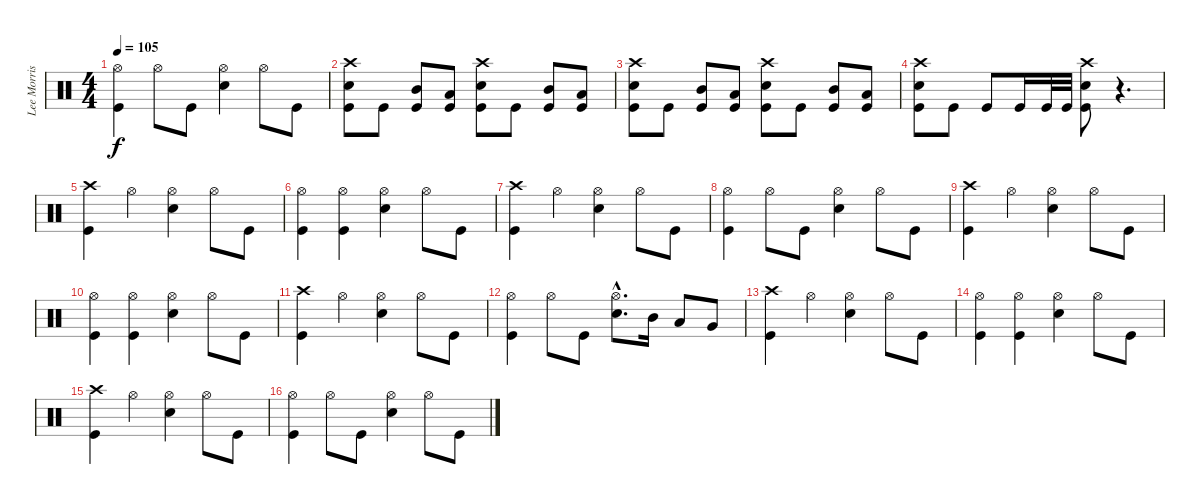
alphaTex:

\track ("Lee Morris" "Lee Morris") {instrument percussion}
\staff {score}
\articulation defaults
\ts (4 4)
\tempo 105
\clef neutral
\ks c
("Kick (hit)" "Hi-Hat (open)").4{dy f} "Hi-Hat (open)".8 "Kick (hit)".8 ("Snare (hit) 2" "Hi-Hat (open)").4 "Hi-Hat (open)".8 "Kick (hit)".8 |
("Kick (hit)" "Snare (hit) 2" "Crash high (hit)").8 "Kick (hit)".8 ("Kick (hit)" "Mid Tom (hit)").8 ("Kick (hit)" "Low Tom (hit)").8 ("Kick (hit)" "Snare (hit) 2" "Crash high (hit)").8 "Kick (hit)".8 ("Kick (hit)" "Mid Tom (hit)").8 ("Kick (hit)" "Low Tom (hit)").8 |
("Kick (hit)" "Snare (hit) 2" "Crash high (hit)").8 "Kick (hit)".8 ("Kick (hit)" "Mid Tom (hit)").8 ("Kick (hit)" "Low Tom (hit)").8 ("Kick (hit)" "Snare (hit) 2" "Crash high (hit)").8 "Kick (hit)".8 ("Kick (hit)" "Mid Tom (hit)").8 ("Kick (hit)" "Low Tom (hit)").8 |
("Kick (hit)" "Snare (hit) 2" "Crash high (hit)").8 "Kick (hit)".8 "Kick (hit)".8 "Kick (hit)".16 "Kick (hit)".32 "Kick (hit)".32 ("Kick (hit)" "Snare (hit) 2" "Crash high (hit)").8 r.4{d} |
("Kick (hit)" "Crash high (hit)").4 "Hi-Hat (open)".4 ("Snare (hit) 2" "Hi-Hat (open)").4 "Hi-Hat (open)".8 "Kick (hit)".8 |
("Kick (hit)" "Hi-Hat (open)").4 ("Kick (hit)" "Hi-Hat (open)").4 ("Snare (hit) 2" "Hi-Hat (open)").4 "Hi-Hat (open)".8 "Kick (hit)".8 |
("Kick (hit)" "Crash high (hit)").4 "Hi-Hat (open)".4 ("Snare (hit) 2" "Hi-Hat (open)").4 "Hi-Hat (open)".8 "Kick (hit)".8 |
("Kick (hit)" "Hi-Hat (open)").4 "Hi-Hat (open)".8 "Kick (hit)".8 ("Snare (hit) 2" "Hi-Hat (open)").4 "Hi-Hat (open)".8 "Kick (hit)".8 |
("Kick (hit)" "Crash high (hit)").4 "Hi-Hat (open)".4 ("Snare (hit) 2" "Hi-Hat (open)").4 "Hi-Hat (open)".8 "Kick (hit)".8 |
("Kick (hit)" "Hi-Hat (open)").4 ("Kick (hit)" "Hi-Hat (open)").4 ("Snare (hit) 2" "Hi-Hat (open)").4 "Hi-Hat (open)".8 "Kick (hit)".8 |
("Kick (hit)" "Crash high (hit)").4 "Hi-Hat (open)".4 ("Snare (hit) 2" "Hi-Hat (open)").4 "Hi-Hat (open)".8 "Kick (hit)".8 |
("Kick (hit)" "Hi-Hat (open)").4 "Hi-Hat (open)".8 "Kick (hit)".8 ("Snare (hit) 2"{hac} "Hi-Hat (open)"{hac}).8{d} "Mid Tom (hit)".16 "Low Tom (hit)".8 "Very Low Tom (hit)".8 |
("Kick (hit)" "Crash high (hit)").4 "Hi-Hat (open)".4 ("Snare (hit) 2" "Hi-Hat (open)").4 "Hi-Hat (open)".8 "Kick (hit)".8 |
("Kick (hit)" "Hi-Hat (open)").4 ("Kick (hit)" "Hi-Hat (open)").4 ("Snare (hit) 2" "Hi-Hat (open)").4 "Hi-Hat (open)".8 "Kick (hit)".8 |
("Kick (hit)" "Crash high (hit)").4 "Hi-Hat (open)".4 ("Snare (hit) 2" "Hi-Hat (open)").4 "Hi-Hat (open)".8 "Kick (hit)".8 |
("Kick (hit)" "Hi-Hat (open)").4 "Hi-Hat (open)".8 "Kick (hit)".8 ("Snare (hit) 2" "Hi-Hat (open)").4 "Hi-Hat (open)".8 "Kick (hit)".8
